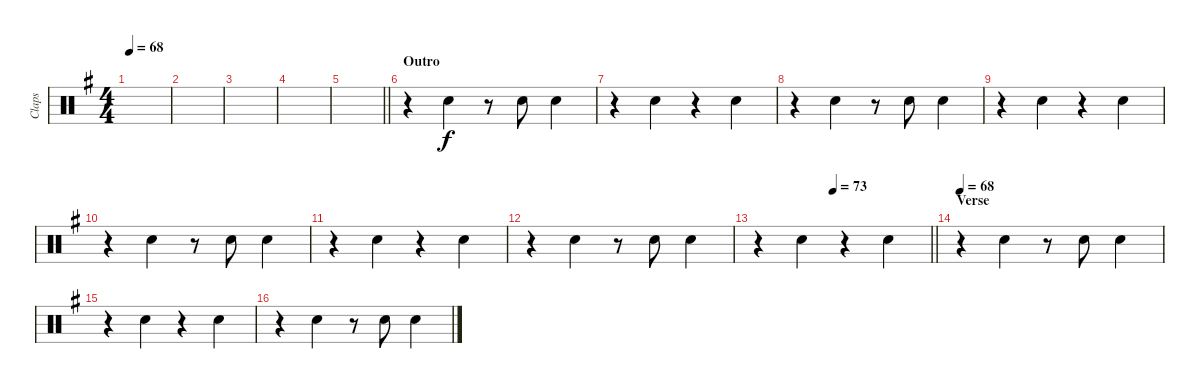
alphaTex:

\track ("Claps" "Claps") {instrument percussion}
\staff {score}
\articulation defaults
\ts (4 4)
\tempo 68
\clef neutral
\ks g
|
|
|
|
\barLineRight lightlight
|
\section ("" "Outro")
r.4 "Hand Clap (hit)".4 r.8 "Hand Clap (hit)".8 "Hand Clap (hit)".4 |
r.4 "Hand Clap (hit)".4 r.4 "Hand Clap (hit)".4 |
r.4 "Hand Clap (hit)".4 r.8 "Hand Clap (hit)".8 "Hand Clap (hit)".4 |
r.4 "Hand Clap (hit)".4 r.4 "Hand Clap (hit)".4 |
r.4 "Hand Clap (hit)".4 r.8 "Hand Clap (hit)".8 "Hand Clap (hit)".4 |
r.4 "Hand Clap (hit)".4 r.4 "Hand Clap (hit)".4 |
r.4 "Hand Clap (hit)".4 r.8 "Hand Clap (hit)".8 "Hand Clap (hit)".4 |
\tempo (73 0.4375)
\barLineRight lightlight
r.4 "Hand Clap (hit)".4 r.4 "Hand Clap (hit)".4 |
\section ("" "Verse")
\tempo 68
r.4 "Hand Clap (hit)".4 r.8 "Hand Clap (hit)".8 "Hand Clap (hit)".4 |
r.4 "Hand Clap (hit)".4 r.4 "Hand Clap (hit)".4 |
r.4 "Hand Clap (hit)".4 r.8 "Hand Clap (hit)".8 "Hand Clap (hit)".4
